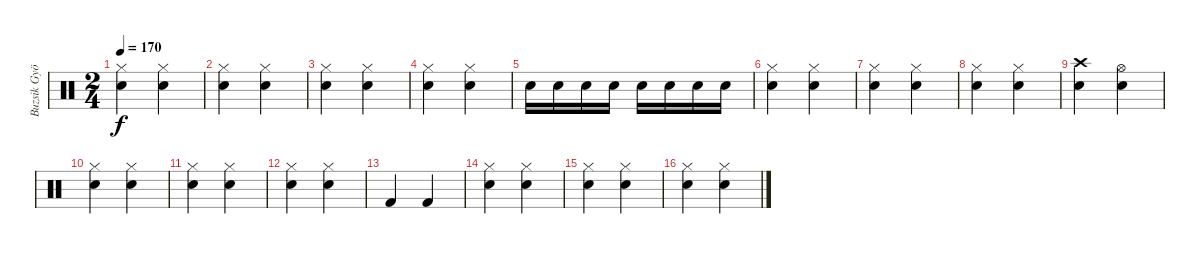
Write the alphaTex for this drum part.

\track ("Buzsik György (dob)" "Buzsik Gyö") {instrument percussion}
\staff {score}
\articulation defaults
\ts (2 4)
\tempo 170
\clef neutral
\ks c
("Hi-Hat (closed)" "Snare (hit) 2").4{dy f} ("Hi-Hat (closed)" "Snare (hit) 2").4 |
("Hi-Hat (closed)" "Snare (hit) 2").4 ("Hi-Hat (closed)" "Snare (hit) 2").4 |
("Hi-Hat (closed)" "Snare (hit) 2").4 ("Hi-Hat (closed)" "Snare (hit) 2").4 |
("Hi-Hat (closed)" "Snare (hit) 2").4 ("Hi-Hat (closed)" "Snare (hit) 2").4 |
"Snare (hit) 2".16 "Snare (hit) 2".16 "Snare (hit) 2".16 "Snare (hit) 2".16 "Snare (hit) 2".16 "Snare (hit) 2".16 "Snare (hit) 2".16 "Snare (hit) 2".16 |
("Hi-Hat (closed)" "Snare (hit) 2").4 ("Hi-Hat (closed)" "Snare (hit) 2").4 |
("Hi-Hat (closed)" "Snare (hit) 2").4 ("Hi-Hat (closed)" "Snare (hit) 2").4 |
("Hi-Hat (closed)" "Snare (hit) 2").4 ("Hi-Hat (closed)" "Snare (hit) 2").4 |
("Crash high (hit)" "Snare (hit) 2").4 ("Hi-Hat (open)" "Snare (hit) 2").4 |
("Hi-Hat (closed)" "Snare (hit) 2").4 ("Hi-Hat (closed)" "Snare (hit) 2").4 |
("Hi-Hat (closed)" "Snare (hit) 2").4 ("Hi-Hat (closed)" "Snare (hit) 2").4 |
("Hi-Hat (closed)" "Snare (hit) 2").4 ("Hi-Hat (closed)" "Snare (hit) 2").4 |
"Kick (hit) 2".4 "Kick (hit) 2".4 |
("Hi-Hat (closed)" "Snare (hit) 2").4 ("Hi-Hat (closed)" "Snare (hit) 2").4 |
("Hi-Hat (closed)" "Snare (hit) 2").4 ("Hi-Hat (closed)" "Snare (hit) 2").4 |
("Hi-Hat (closed)" "Snare (hit) 2").4 ("Hi-Hat (closed)" "Snare (hit) 2").4
